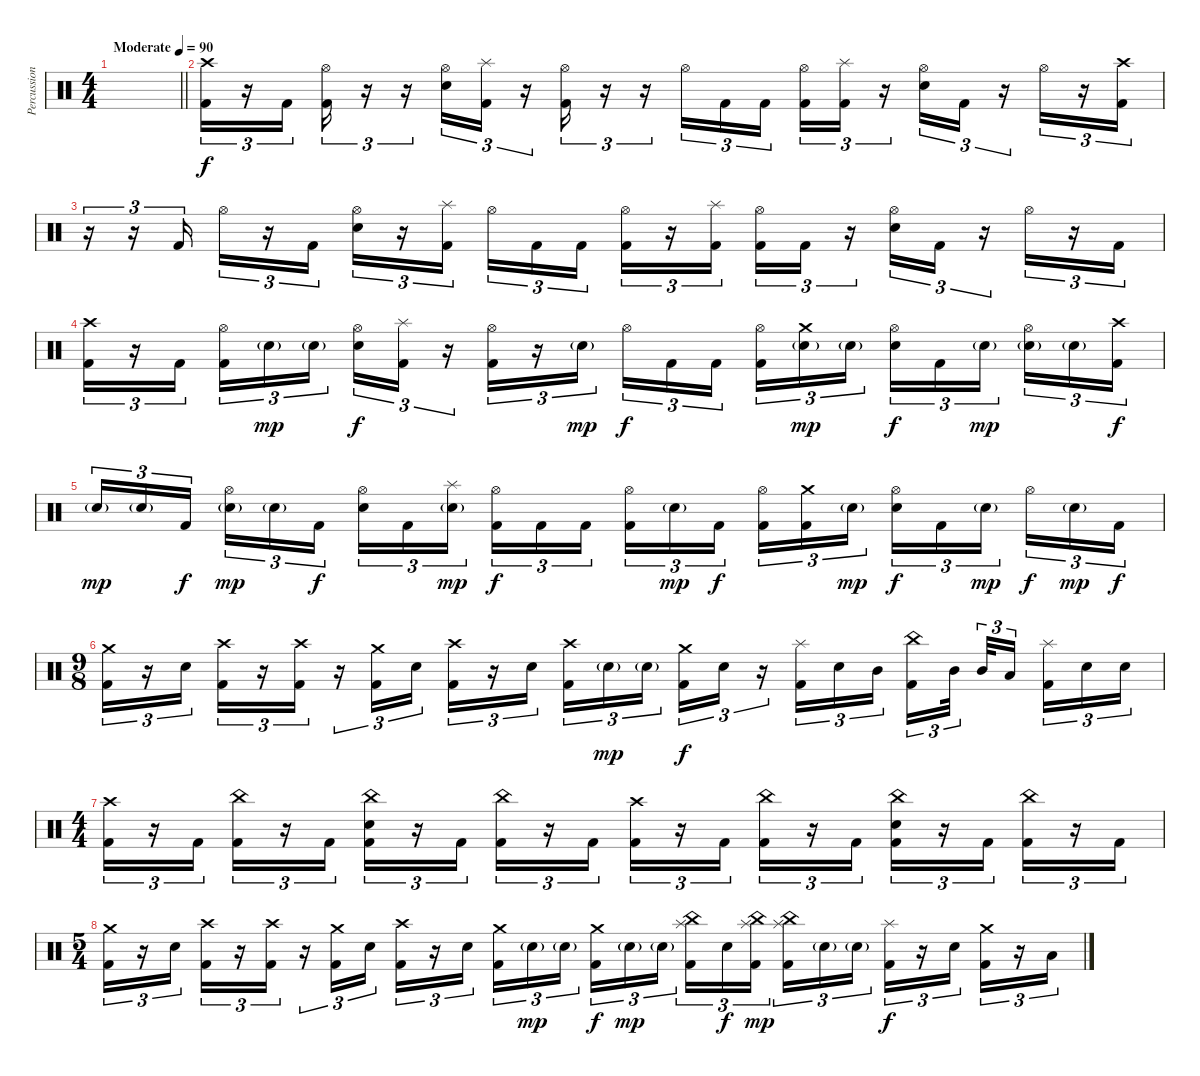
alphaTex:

\track ("Percussion" "Percussion") {instrument percussion}
\staff {score}
\articulation defaults
\ts (4 4)
\tempo (90 "Moderate")
\clef neutral
\barLineRight lightlight
\ks c
|
("Crash high (hit)" "Kick (hit) 2").16{tu (3 2)} r.16{tu (3 2)} "Kick (hit) 2".16{tu (3 2)} ("Hi-Hat (open)" "Kick (hit) 2").16{tu (3 2)} r.16{tu (3 2)} r.16{tu (3 2)} ("Hi-Hat (open)" "Electric Snare (hit)").16{tu (3 2)} ("Splash (hit)" "Kick (hit) 2").16{tu (3 2)} r.16{tu (3 2)} ("Hi-Hat (open)" "Kick (hit) 2").16{tu (3 2)} r.16{tu (3 2)} r.16{tu (3 2)} "Hi-Hat (open)".16{tu (3 2)} "Kick (hit) 2".16{tu (3 2)} "Kick (hit) 2".16{tu (3 2) beam splitsecondary} ("Hi-Hat (open)" "Kick (hit) 2").16{tu (3 2)} ("Splash (hit)" "Kick (hit) 2").16{tu (3 2)} r.16{tu (3 2)} ("Hi-Hat (open)" "Electric Snare (hit)").16{tu (3 2)} "Kick (hit) 2".16{tu (3 2)} r.16{tu (3 2)} "Hi-Hat (open)".16{tu (3 2)} r.16{tu (3 2)} ("Crash high (hit)" "Kick (hit) 2").16{tu (3 2)} |
r.16{tu (3 2)} r.16{tu (3 2)} "Kick (hit) 2".16{tu (3 2)} "Hi-Hat (open)".16{tu (3 2)} r.16{tu (3 2)} "Kick (hit) 2".16{tu (3 2)} ("Hi-Hat (open)" "Electric Snare (hit)").16{tu (3 2)} r.16{tu (3 2)} ("Splash (hit)" "Kick (hit) 2").16{tu (3 2) beam splitsecondary} "Hi-Hat (open)".16{tu (3 2)} "Kick (hit) 2".16{tu (3 2)} "Kick (hit) 2".16{tu (3 2)} ("Hi-Hat (open)" "Kick (hit) 2").16{tu (3 2)} r.16{tu (3 2)} ("Splash (hit)" "Kick (hit) 2").16{tu (3 2) beam splitsecondary} ("Hi-Hat (open)" "Kick (hit) 2").16{tu (3 2)} "Kick (hit) 2".16{tu (3 2)} r.16{tu (3 2)} ("Hi-Hat (open)" "Electric Snare (hit)").16{tu (3 2)} "Kick (hit) 2".16{tu (3 2)} r.16{tu (3 2)} "Hi-Hat (open)".16{tu (3 2)} r.16{tu (3 2)} "Kick (hit) 2".16{tu (3 2)} |
("Crash high (hit)" "Kick (hit) 2").16{tu (3 2)} r.16{tu (3 2)} "Kick (hit) 2".16{tu (3 2) beam splitsecondary} ("Hi-Hat (open)" "Kick (hit) 2").16{tu (3 2)} "Electric Snare (hit)"{g}.16{tu (3 2) dy mp} "Electric Snare (hit)"{g}.16{tu (3 2)} ("Hi-Hat (open)" "Electric Snare (hit)").16{tu (3 2) dy f} ("Splash (hit)" "Kick (hit) 2").16{tu (3 2)} r.16{tu (3 2)} ("Hi-Hat (open)" "Kick (hit) 2").16{tu (3 2)} r.16{tu (3 2)} "Electric Snare (hit)"{g}.16{tu (3 2) dy mp} "Hi-Hat (open)".16{tu (3 2) dy f} "Kick (hit) 2".16{tu (3 2)} "Kick (hit) 2".16{tu (3 2) beam splitsecondary} ("Hi-Hat (open)" "Kick (hit) 2").16{tu (3 2)} ("Crash medium (hit)" "Electric Snare (hit)"{g}).16{tu (3 2) dy mp} "Electric Snare (hit)"{g}.16{tu (3 2)} ("Hi-Hat (open)" "Electric Snare (hit)").16{tu (3 2) dy f} "Kick (hit) 2".16{tu (3 2)} "Electric Snare (hit)"{g}.16{tu (3 2) dy mp beam splitsecondary} ("Hi-Hat (open)" "Electric Snare (hit)"{g}).16{tu (3 2)} "Electric Snare (hit)"{g}.16{tu (3 2)} ("Crash high (hit)" "Kick (hit) 2").16{tu (3 2) dy f} |
"Electric Snare (hit)"{g}.16{tu (3 2) dy mp} "Electric Snare (hit)"{g}.16{tu (3 2)} "Kick (hit) 2".16{tu (3 2) dy f beam splitsecondary} ("Hi-Hat (open)" "Electric Snare (hit)"{g}).16{tu (3 2) dy mp} "Electric Snare (hit)"{g}.16{tu (3 2)} "Kick (hit) 2".16{tu (3 2) dy f} ("Hi-Hat (open)" "Electric Snare (hit)").16{tu (3 2)} "Kick (hit) 2".16{tu (3 2)} ("Splash (hit)" "Electric Snare (hit)"{g}).16{tu (3 2) dy mp beam splitsecondary} ("Hi-Hat (open)" "Kick (hit) 2").16{tu (3 2) dy f} "Kick (hit) 2".16{tu (3 2)} "Kick (hit) 2".16{tu (3 2)} ("Hi-Hat (open)" "Kick (hit) 2").16{tu (3 2)} "Electric Snare (hit)"{g}.16{tu (3 2) dy mp} "Kick (hit) 2".16{tu (3 2) dy f beam splitsecondary} ("Hi-Hat (open)" "Kick (hit) 2").16{tu (3 2)} ("Crash medium (hit)" "Kick (hit) 2").16{tu (3 2)} "Electric Snare (hit)"{g}.16{tu (3 2) dy mp} ("Hi-Hat (open)" "Electric Snare (hit)").16{tu (3 2) dy f} "Kick (hit) 2".16{tu (3 2)} "Electric Snare (hit)"{g}.16{tu (3 2) dy mp beam splitsecondary} "Hi-Hat (open)".16{tu (3 2) dy f} "Electric Snare (hit)"{g}.16{tu (3 2) dy mp} "Kick (hit) 2".16{tu (3 2) dy f} |
\ts (9 8)
("Crash medium (hit)" "Kick (hit) 2").16{tu (3 2)} r.16{tu (3 2)} "Electric Snare (hit)".16{tu (3 2)} ("Crash high (hit)" "Kick (hit) 2").16{tu (3 2)} r.16{tu (3 2)} ("Crash high (hit)" "Kick (hit) 2").16{tu (3 2)} r.16{tu (3 2)} ("Crash medium (hit)" "Kick (hit) 2").16{tu (3 2)} "Electric Snare (hit)".16{tu (3 2)} ("Crash high (hit)" "Kick (hit) 2").16{tu (3 2)} r.16{tu (3 2)} "Electric Snare (hit)".16{tu (3 2) beam splitsecondary} ("Crash high (hit)" "Kick (hit) 2").16{tu (3 2)} "Electric Snare (hit)"{g}.16{tu (3 2) dy mp} "Electric Snare (hit)"{g}.16{tu (3 2) beam splitsecondary} ("Crash medium (hit)" "Kick (hit) 2").16{tu (3 2) dy f} "Electric Snare (hit)".16{tu (3 2)} r.16{tu (3 2)} ("Splash (hit)" "Kick (hit) 2").16{tu (3 2)} "Electric Snare (hit)".16{tu (3 2)} "Mid Tom (hit)".16{tu (3 2) beam splitsecondary} ("China (hit)" "Kick (hit) 2").16{tu (3 2)} "Mid Tom (hit)".32{tu (3 2) beam splitsecondary} "Mid Tom (hit)".32{tu (3 2)} "Low Tom (hit)".16{tu (3 2) beam splitsecondary} ("Splash (hit)" "Kick (hit) 2").16{tu (3 2)} "Electric Snare (hit)".16{tu (3 2)} "Electric Snare (hit)".16{tu (3 2)} |
\ts (4 4)
("Crash high (hit)" "Kick (hit) 2").16{tu (3 2)} r.16{tu (3 2)} "Kick (hit) 2".16{tu (3 2)} ("China (hit)" "Kick (hit) 2").16{tu (3 2)} r.16{tu (3 2)} "Kick (hit) 2".16{tu (3 2)} ("China (hit)" "Electric Snare (hit)" "Kick (hit) 2").16{tu (3 2)} r.16{tu (3 2)} "Kick (hit) 2".16{tu (3 2)} ("China (hit)" "Kick (hit) 2").16{tu (3 2)} r.16{tu (3 2)} "Kick (hit) 2".16{tu (3 2)} ("Crash high (hit)" "Kick (hit) 2").16{tu (3 2)} r.16{tu (3 2)} "Kick (hit) 2".16{tu (3 2)} ("China (hit)" "Kick (hit) 2").16{tu (3 2)} r.16{tu (3 2)} "Kick (hit) 2".16{tu (3 2)} ("China (hit)" "Electric Snare (hit)" "Kick (hit) 2").16{tu (3 2)} r.16{tu (3 2)} "Kick (hit) 2".16{tu (3 2)} ("China (hit)" "Kick (hit) 2").16{tu (3 2)} r.16{tu (3 2)} "Kick (hit) 2".16{tu (3 2)} |
\ts (5 4)
("Crash medium (hit)" "Kick (hit) 2").16{tu (3 2)} r.16{tu (3 2)} "Electric Snare (hit)".16{tu (3 2)} ("Crash high (hit)" "Kick (hit) 2").16{tu (3 2)} r.16{tu (3 2)} ("Crash high (hit)" "Kick (hit) 2").16{tu (3 2)} r.16{tu (3 2)} ("Crash medium (hit)" "Kick (hit) 2").16{tu (3 2)} "Electric Snare (hit)".16{tu (3 2) beam splitsecondary} ("Crash high (hit)" "Kick (hit) 2").16{tu (3 2)} r.16{tu (3 2)} "Electric Snare (hit)".16{tu (3 2)} ("Crash medium (hit)" "Kick (hit) 2").16{tu (3 2)} "Electric Snare (hit)"{g}.16{tu (3 2) dy mp} "Electric Snare (hit)"{g}.16{tu (3 2) beam splitsecondary} ("Crash medium (hit)" "Kick (hit) 2").16{tu (3 2) dy f} "Electric Snare (hit)"{g}.16{tu (3 2) dy mp} "Electric Snare (hit)"{g}.16{tu (3 2)} ("Splash (hit)" "China (hit)" "Kick (hit) 2").16{tu (3 2)} "Electric Snare (hit)".16{tu (3 2) dy f} ("China (hit)" "Splash (hit)" "Kick (hit) 2").16{tu (3 2) dy mp beam splitsecondary} ("China (hit)" "Splash (hit)" "Kick (hit) 2").16{tu (3 2)} "Electric Snare (hit)"{g}.16{tu (3 2)} "Electric Snare (hit)"{g}.16{tu (3 2)} ("Splash (hit)" "Kick (hit) 2").16{tu (3 2) dy f} r.16{tu (3 2)} "Electric Snare (hit)".16{tu (3 2)} ("Crash medium (hit)" "Kick (hit) 2").16{tu (3 2)} r.16{tu (3 2)} "Low Tom (hit)".16{tu (3 2)}
